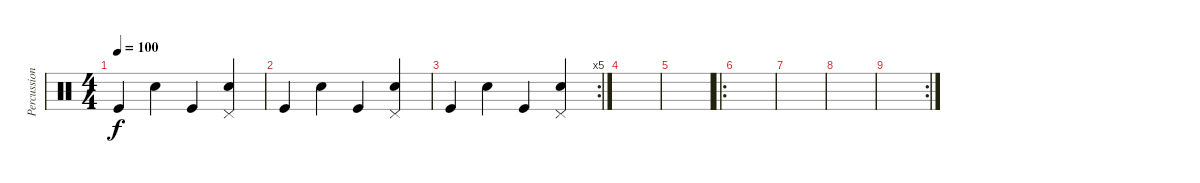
\track ("Percussion" "Percussion") {instrument percussion}
\staff {score}
\articulation defaults
\ts (4 4)
\tempo 100
\clef neutral
\ks c "Kick (hit)".4{dy f} "Snare (hit) 2".4 "Kick (hit)".4
("Pedal Hi-Hat (hit)" "Snare (hit) 2").4 |
"Kick (hit)".4 "Snare (hit) 2".4 "Kick (hit)".4 ("Pedal Hi-Hat (hit)" "Snare (hit) 2").4 |
\rc 5 "Kick (hit)".4 "Snare (hit) 2".4 "Kick (hit)".4
("Pedal Hi-Hat (hit)" "Snare (hit) 2").4 |
|
|
\ro
|
|
|
\rc 2
